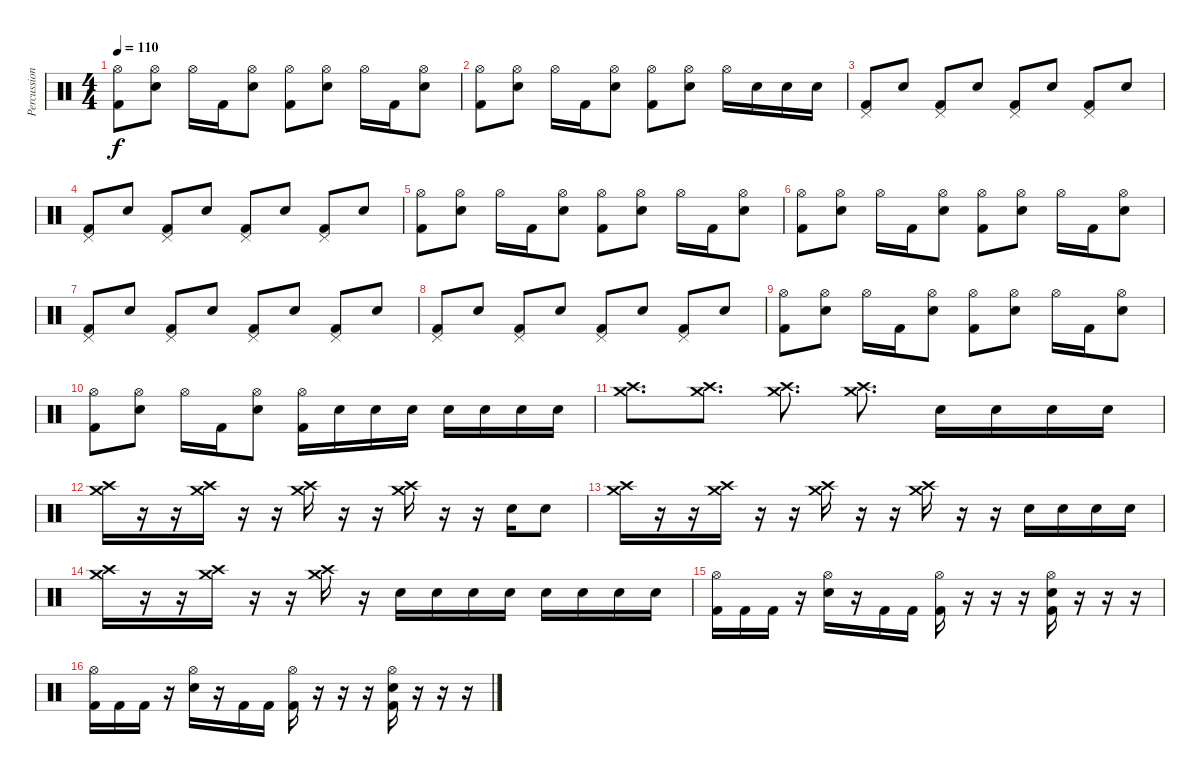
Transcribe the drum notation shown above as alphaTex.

\track ("Percussions" "Percussion") {instrument percussion}
\staff {score}
\articulation defaults
\ts (4 4)
\tempo 110
\clef neutral
\ks c
("Hi-Hat (open)" "Kick (hit) 2").8{dy f} ("Hi-Hat (open)" "Electric Snare (hit)").8 "Hi-Hat (open)".16 "Kick (hit) 2".16 ("Hi-Hat (open)" "Electric Snare (hit)").8 ("Hi-Hat (open)" "Kick (hit) 2").8 ("Hi-Hat (open)" "Electric Snare (hit)").8 "Hi-Hat (open)".16 "Kick (hit) 2".16 ("Hi-Hat (open)" "Electric Snare (hit)").8 |
("Hi-Hat (open)" "Kick (hit) 2").8 ("Hi-Hat (open)" "Electric Snare (hit)").8 "Hi-Hat (open)".16 "Kick (hit) 2".16 ("Hi-Hat (open)" "Electric Snare (hit)").8 ("Hi-Hat (open)" "Kick (hit) 2").8 ("Hi-Hat (open)" "Electric Snare (hit)").8 "Hi-Hat (open)".16 "Electric Snare (hit)".16 "Electric Snare (hit)".16 "Electric Snare (hit)".16 |
("Pedal Hi-Hat (hit)" "Kick (hit) 2").8 "Electric Snare (hit)".8 ("Pedal Hi-Hat (hit)" "Kick (hit) 2").8 "Electric Snare (hit)".8 ("Pedal Hi-Hat (hit)" "Kick (hit) 2").8 "Electric Snare (hit)".8 ("Pedal Hi-Hat (hit)" "Kick (hit) 2").8 "Electric Snare (hit)".8 |
("Pedal Hi-Hat (hit)" "Kick (hit) 2").8 "Electric Snare (hit)".8 ("Pedal Hi-Hat (hit)" "Kick (hit) 2").8 "Electric Snare (hit)".8 ("Pedal Hi-Hat (hit)" "Kick (hit) 2").8 "Electric Snare (hit)".8 ("Pedal Hi-Hat (hit)" "Kick (hit) 2").8 "Electric Snare (hit)".8 |
("Hi-Hat (open)" "Kick (hit) 2").8 ("Hi-Hat (open)" "Electric Snare (hit)").8 "Hi-Hat (open)".16 "Kick (hit) 2".16 ("Hi-Hat (open)" "Electric Snare (hit)").8 ("Hi-Hat (open)" "Kick (hit) 2").8 ("Hi-Hat (open)" "Electric Snare (hit)").8 "Hi-Hat (open)".16 "Kick (hit) 2".16 ("Hi-Hat (open)" "Electric Snare (hit)").8 |
("Hi-Hat (open)" "Kick (hit) 2").8 ("Hi-Hat (open)" "Electric Snare (hit)").8 "Hi-Hat (open)".16 "Kick (hit) 2".16 ("Hi-Hat (open)" "Electric Snare (hit)").8 ("Hi-Hat (open)" "Kick (hit) 2").8 ("Hi-Hat (open)" "Electric Snare (hit)").8 "Hi-Hat (open)".16 "Kick (hit) 2".16 ("Hi-Hat (open)" "Electric Snare (hit)").8 |
("Pedal Hi-Hat (hit)" "Kick (hit) 2").8 "Electric Snare (hit)".8 ("Pedal Hi-Hat (hit)" "Kick (hit) 2").8 "Electric Snare (hit)".8 ("Pedal Hi-Hat (hit)" "Kick (hit) 2").8 "Electric Snare (hit)".8 ("Pedal Hi-Hat (hit)" "Kick (hit) 2").8 "Electric Snare (hit)".8 |
("Pedal Hi-Hat (hit)" "Kick (hit) 2").8 "Electric Snare (hit)".8 ("Pedal Hi-Hat (hit)" "Kick (hit) 2").8 "Electric Snare (hit)".8 ("Pedal Hi-Hat (hit)" "Kick (hit) 2").8 "Electric Snare (hit)".8 ("Pedal Hi-Hat (hit)" "Kick (hit) 2").8 "Electric Snare (hit)".8 |
("Hi-Hat (open)" "Kick (hit) 2").8 ("Hi-Hat (open)" "Electric Snare (hit)").8 "Hi-Hat (open)".16 "Kick (hit) 2".16 ("Hi-Hat (open)" "Electric Snare (hit)").8 ("Hi-Hat (open)" "Kick (hit) 2").8 ("Hi-Hat (open)" "Electric Snare (hit)").8 "Hi-Hat (open)".16 "Kick (hit) 2".16 ("Hi-Hat (open)" "Electric Snare (hit)").8 |
("Hi-Hat (open)" "Kick (hit) 2").8 ("Hi-Hat (open)" "Electric Snare (hit)").8 "Hi-Hat (open)".16 "Kick (hit) 2".16 ("Hi-Hat (open)" "Electric Snare (hit)").8 ("Hi-Hat (open)" "Kick (hit) 2").16 "Electric Snare (hit)".16 "Electric Snare (hit)".16 "Electric Snare (hit)".16 "Electric Snare (hit)".16 "Electric Snare (hit)".16 "Electric Snare (hit)".16 "Electric Snare (hit)".16 |
("Crash high (hit)" "Crash medium (hit)").8{d} ("Crash high (hit)" "Crash medium (hit)").8{d} ("Crash high (hit)" "Crash medium (hit)").8{d} ("Crash high (hit)" "Crash medium (hit)").8{d} "Electric Snare (hit)".16 "Electric Snare (hit)".16 "Electric Snare (hit)".16 "Electric Snare (hit)".16 |
("Crash high (hit)" "Crash medium (hit)").16 r.16 r.16 ("Crash high (hit)" "Crash medium (hit)").16 r.16 r.16 ("Crash high (hit)" "Crash medium (hit)").16 r.16 r.16 ("Crash high (hit)" "Crash medium (hit)").16 r.16 r.16 "Electric Snare (hit)".16 "Electric Snare (hit)".8 |
("Crash high (hit)" "Crash medium (hit)").16 r.16 r.16 ("Crash high (hit)" "Crash medium (hit)").16 r.16 r.16 ("Crash high (hit)" "Crash medium (hit)").16 r.16 r.16 ("Crash high (hit)" "Crash medium (hit)").16 r.16 r.16 "Electric Snare (hit)".16 "Electric Snare (hit)".16 "Electric Snare (hit)".16 "Electric Snare (hit)".16 |
("Crash high (hit)" "Crash medium (hit)").16 r.16 r.16 ("Crash high (hit)" "Crash medium (hit)").16 r.16 r.16 ("Crash high (hit)" "Crash medium (hit)").16 r.16 "Electric Snare (hit)".16 "Electric Snare (hit)".16 "Electric Snare (hit)".16 "Electric Snare (hit)".16 "Electric Snare (hit)".16 "Electric Snare (hit)".16 "Electric Snare (hit)".16 "Electric Snare (hit)".16 |
("Hi-Hat (open)" "Kick (hit) 2").16 "Kick (hit) 2".16 "Kick (hit) 2".16 r.16 ("Hi-Hat (open)" "Electric Snare (hit)").16 r.16 "Kick (hit) 2".16 "Kick (hit) 2".16 ("Hi-Hat (open)" "Kick (hit) 2").16 r.16 r.16 r.16 ("Hi-Hat (open)" "Electric Snare (hit)" "Kick (hit) 2").16 r.16 r.16 r.16 |
("Hi-Hat (open)" "Kick (hit) 2").16 "Kick (hit) 2".16 "Kick (hit) 2".16 r.16 ("Hi-Hat (open)" "Electric Snare (hit)").16 r.16 "Kick (hit) 2".16 "Kick (hit) 2".16 ("Hi-Hat (open)" "Kick (hit) 2").16 r.16 r.16 r.16 ("Hi-Hat (open)" "Electric Snare (hit)" "Kick (hit) 2").16 r.16 r.16 r.16
